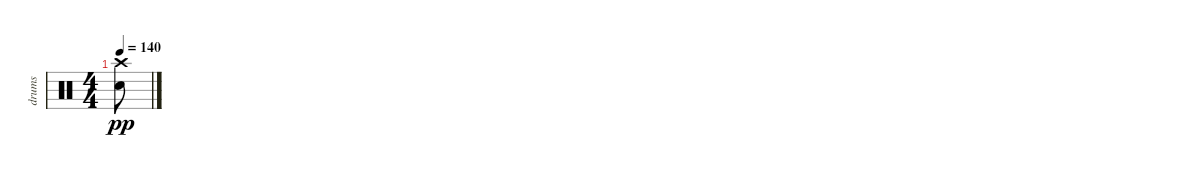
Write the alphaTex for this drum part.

\track ("drums" "drums") {instrument percussion}
\staff {score}
\articulation defaults
\ts (4 4)
\tempo 140
\clef neutral
\ks c
("Crash high (hit)" "Snare (hit)"{t}).8{dy pp}
